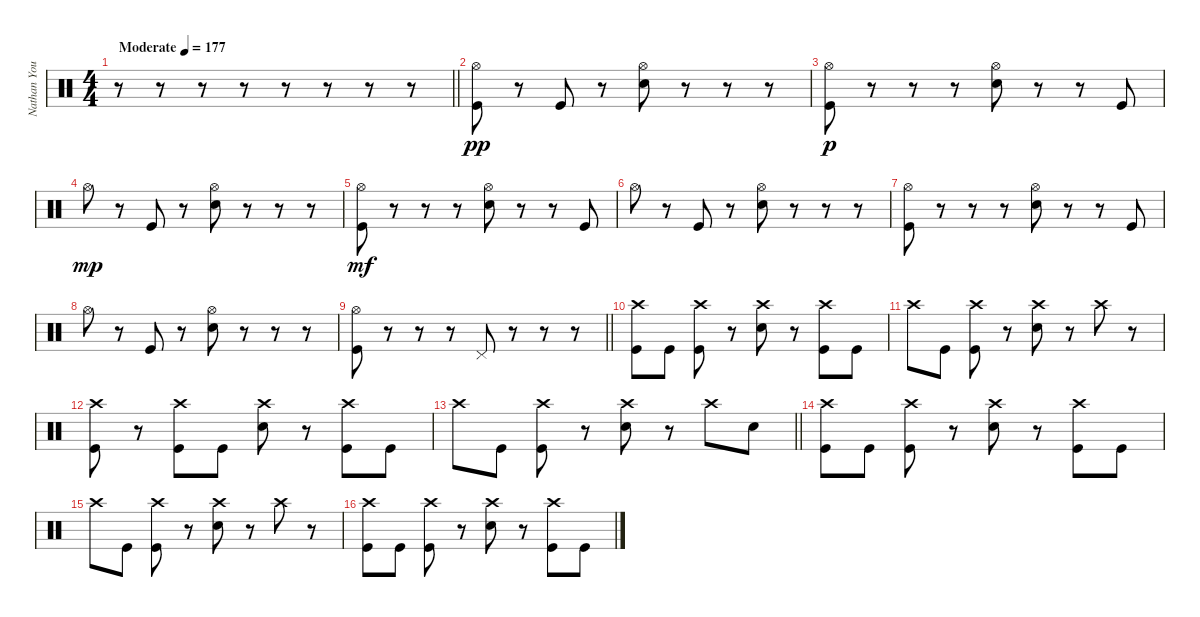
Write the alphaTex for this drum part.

\track ("Nathan Young" "Nathan You") {instrument percussion}
\staff {score}
\articulation defaults
\ts (4 4)
\tempo (177 "Moderate")
\clef neutral
\barLineRight lightlight
\ks c
r.8{dy pp} r.8 r.8 r.8 r.8 r.8 r.8 r.8 |
("Hi-Hat (open)" "Kick (hit)").8 r.8 "Kick (hit)".8 r.8 ("Hi-Hat (open)" "Snare (hit) 2").8 r.8 r.8 r.8 |
("Hi-Hat (open)" "Kick (hit)").8{dy p} r.8 r.8 r.8 ("Hi-Hat (open)" "Snare (hit) 2").8 r.8 r.8 "Kick (hit)".8 |
"Hi-Hat (open)".8{dy mp} r.8 "Kick (hit)".8 r.8 ("Hi-Hat (open)" "Snare (hit) 2").8 r.8 r.8 r.8 |
("Hi-Hat (open)" "Kick (hit)").8{dy mf} r.8 r.8 r.8 ("Hi-Hat (open)" "Snare (hit) 2").8 r.8 r.8 "Kick (hit)".8 |
"Hi-Hat (open)".8 r.8 "Kick (hit)".8 r.8 ("Hi-Hat (open)" "Snare (hit) 2").8 r.8 r.8 r.8 |
("Hi-Hat (open)" "Kick (hit)").8 r.8 r.8 r.8 ("Hi-Hat (open)" "Snare (hit) 2").8 r.8 r.8 "Kick (hit)".8 |
"Hi-Hat (open)".8 r.8 "Kick (hit)".8 r.8 ("Hi-Hat (open)" "Snare (hit) 2").8 r.8 r.8 r.8 |
\barLineRight lightlight
("Hi-Hat (open)" "Kick (hit)").8 r.8 r.8 r.8 "Pedal Hi-Hat (hit)".8 r.8 r.8 r.8 |
("Crash high (hit)" "Kick (hit)").8 "Kick (hit)".8 ("Crash high (hit)" "Kick (hit)").8 r.8 ("Crash high (hit)" "Snare (hit) 2").8 r.8 ("Crash high (hit)" "Kick (hit)").8 "Kick (hit)".8 |
"Crash high (hit)".8 "Kick (hit)".8 ("Crash high (hit)" "Kick (hit)").8 r.8 ("Crash high (hit)" "Snare (hit) 2").8 r.8 "Crash high (hit)".8 r.8 |
("Crash high (hit)" "Kick (hit)").8 r.8 ("Crash high (hit)" "Kick (hit)").8 "Kick (hit)".8 ("Crash high (hit)" "Snare (hit) 2").8 r.8 ("Crash high (hit)" "Kick (hit)").8 "Kick (hit)".8 |
\barLineRight lightlight "Crash high (hit)".8 "Kick (hit)".8
("Crash high (hit)" "Kick (hit)").8 r.8 ("Crash high (hit)" "Snare (hit) 2").8 r.8 "Crash high (hit)".8 "Snare (hit) 2".8 |
("Crash high (hit)" "Kick (hit)").8 "Kick (hit)".8 ("Crash high (hit)" "Kick (hit)").8 r.8 ("Crash high (hit)" "Snare (hit) 2").8 r.8 ("Crash high (hit)" "Kick (hit)").8 "Kick (hit)".8 |
"Crash high (hit)".8 "Kick (hit)".8 ("Crash high (hit)" "Kick (hit)").8 r.8 ("Crash high (hit)" "Snare (hit) 2").8 r.8 "Crash high (hit)".8 r.8 |
("Crash high (hit)" "Kick (hit)").8 "Kick (hit)".8 ("Crash high (hit)" "Kick (hit)").8 r.8 ("Crash high (hit)" "Snare (hit) 2").8 r.8 ("Crash high (hit)" "Kick (hit)").8 "Kick (hit)".8
